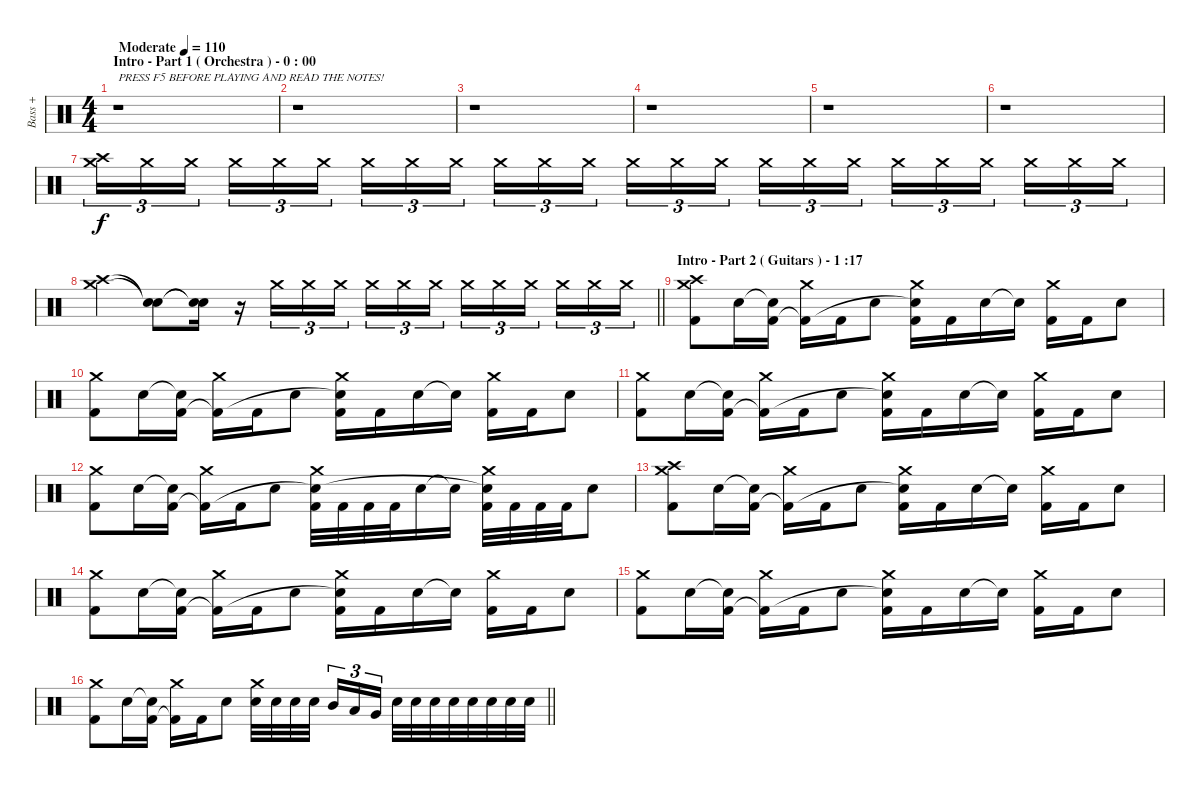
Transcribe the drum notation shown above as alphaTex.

\track ("  Bass +" "  Bass +") {instrument percussion}
\staff {score}
\articulation defaults
\ts (4 4)
\section ("" "Intro - Part 1 ( Orchestra ) - 0 : 00")
\tempo (110 "Moderate")
\clef neutral
\ks c
r.1{txt "PRESS F5 BEFORE PLAYING AND READ THE NOTES!" dy f volume 2} |
r.1 |
r.1 |
r.1 |
r.1 |
r.1 |
("Crash high (hit)" "Crash medium (hit)").16{tu (3 2) volume 16} "Crash medium (hit)".16{tu (3 2)} "Crash medium (hit)".16{tu (3 2) beam splitsecondary} "Crash medium (hit)".16{tu (3 2)} "Crash medium (hit)".16{tu (3 2)} "Crash medium (hit)".16{tu (3 2)} "Crash medium (hit)".16{tu (3 2)} "Crash medium (hit)".16{tu (3 2)} "Crash medium (hit)".16{tu (3 2) beam splitsecondary} "Crash medium (hit)".16{tu (3 2)} "Crash medium (hit)".16{tu (3 2)} "Crash medium (hit)".16{tu (3 2)} "Crash medium (hit)".16{tu (3 2)} "Crash medium (hit)".16{tu (3 2)} "Crash medium (hit)".16{tu (3 2) beam splitsecondary} "Crash medium (hit)".16{tu (3 2)} "Crash medium (hit)".16{tu (3 2)} "Crash medium (hit)".16{tu (3 2)} "Crash medium (hit)".16{tu (3 2)} "Crash medium (hit)".16{tu (3 2)} "Crash medium (hit)".16{tu (3 2) beam splitsecondary} "Crash medium (hit)".16{tu (3 2)} "Crash medium (hit)".16{tu (3 2)} "Crash medium (hit)".16{tu (3 2)} |
\barLineRight lightlight
("Crash high (hit)" "Crash medium (hit)").4 ("Snare (hit)"{t} "Snare (hit)"{t}).8 ("Snare (hit)"{t} "Snare (hit)"{t}).16 r.16{volume 3} "Crash medium (hit)".16{tu (3 2) volume 16} "Crash medium (hit)".16{tu (3 2)} "Crash medium (hit)".16{tu (3 2) beam splitsecondary} "Crash medium (hit)".16{tu (3 2)} "Crash medium (hit)".16{tu (3 2)} "Crash medium (hit)".16{tu (3 2)} "Crash medium (hit)".16{tu (3 2)} "Crash medium (hit)".16{tu (3 2)} "Crash medium (hit)".16{tu (3 2) beam splitsecondary} "Crash medium (hit)".16{tu (3 2)} "Crash medium (hit)".16{tu (3 2)} "Crash medium (hit)".16{tu (3 2)} |
\section ("" "Intro - Part 2 ( Guitars ) - 1 :17")
("Crash medium (hit)" "Crash high (hit)" "Kick (hit) 2").8 "Snare (hit) 2".16 ("Snare (hit)"{t} "Kick (hit) 2").16 ("Crash medium (hit)" "Kick (hit) 2"{t}).16 "Kick (hit) 2".16 "Snare (hit) 2".8 ("Crash medium (hit)" "Snare (hit) 2"{t} "Kick (hit) 2").16 "Kick (hit) 2".16 "Snare (hit) 2".16 "Snare (hit) 2"{t}.16 ("Crash medium (hit)" "Kick (hit) 2").16 "Kick (hit) 2".16 "Snare (hit) 2".8 |
("Crash medium (hit)" "Kick (hit) 2").8 "Snare (hit) 2".16 ("Snare (hit)"{t} "Kick (hit) 2").16 ("Crash medium (hit)" "Kick (hit) 2"{t}).16 "Kick (hit) 2".16 "Snare (hit) 2".8 ("Crash medium (hit)" "Snare (hit) 2"{t} "Kick (hit) 2").16 "Kick (hit) 2".16 "Snare (hit) 2".16 "Snare (hit) 2"{t}.16 ("Crash medium (hit)" "Kick (hit) 2").16 "Kick (hit) 2".16 "Snare (hit) 2".8 |
("Crash medium (hit)" "Kick (hit) 2").8 "Snare (hit) 2".16 ("Snare (hit)"{t} "Kick (hit) 2").16 ("Crash medium (hit)" "Kick (hit) 2"{t}).16 "Kick (hit) 2".16 "Snare (hit) 2".8 ("Crash medium (hit)" "Snare (hit) 2"{t} "Kick (hit) 2").16 "Kick (hit) 2".16 "Snare (hit) 2".16 "Snare (hit) 2"{t}.16 ("Crash medium (hit)" "Kick (hit) 2").16 "Kick (hit) 2".16 "Snare (hit) 2".8 |
("Crash medium (hit)" "Kick (hit) 2").8 "Snare (hit) 2".16 ("Snare (hit)"{t} "Kick (hit) 2").16 ("Crash medium (hit)" "Kick (hit) 2"{t}).16 "Kick (hit) 2".16 "Snare (hit) 2".8 ("Crash medium (hit)" "Snare (hit) 2"{t} "Kick (hit) 2").32 "Kick (hit) 2".32 "Kick (hit) 2".32 "Kick (hit) 2".32 "Snare (hit) 2".16 "Snare (hit) 2"{t}.16 ("Crash medium (hit)" "Snare (hit) 2"{t} "Kick (hit) 2").32 "Kick (hit) 2".32 "Kick (hit) 2".32 "Kick (hit) 2".32 "Snare (hit) 2".8 |
("Crash medium (hit)" "Crash high (hit)" "Kick (hit) 2").8 "Snare (hit) 2".16 ("Snare (hit)"{t} "Kick (hit) 2").16 ("Crash medium (hit)" "Kick (hit) 2"{t}).16 "Kick (hit) 2".16 "Snare (hit) 2".8 ("Crash medium (hit)" "Snare (hit) 2"{t} "Kick (hit) 2").16 "Kick (hit) 2".16 "Snare (hit) 2".16 "Snare (hit) 2"{t}.16 ("Crash medium (hit)" "Kick (hit) 2").16 "Kick (hit) 2".16 "Snare (hit) 2".8 |
("Crash medium (hit)" "Kick (hit) 2").8 "Snare (hit) 2".16 ("Snare (hit)"{t} "Kick (hit) 2").16 ("Crash medium (hit)" "Kick (hit) 2"{t}).16 "Kick (hit) 2".16 "Snare (hit) 2".8 ("Crash medium (hit)" "Snare (hit) 2"{t} "Kick (hit) 2").16 "Kick (hit) 2".16 "Snare (hit) 2".16 "Snare (hit) 2"{t}.16 ("Crash medium (hit)" "Kick (hit) 2").16 "Kick (hit) 2".16 "Snare (hit) 2".8 |
("Crash medium (hit)" "Kick (hit) 2").8 "Snare (hit) 2".16 ("Snare (hit)"{t} "Kick (hit) 2").16 ("Crash medium (hit)" "Kick (hit) 2"{t}).16 "Kick (hit) 2".16 "Snare (hit) 2".8 ("Crash medium (hit)" "Snare (hit) 2"{t} "Kick (hit) 2").16 "Kick (hit) 2".16 "Snare (hit) 2".16 "Snare (hit) 2"{t}.16 ("Crash medium (hit)" "Kick (hit) 2").16 "Kick (hit) 2".16 "Snare (hit) 2".8 |
\barLineRight lightlight
("Crash medium (hit)" "Kick (hit) 2").8 "Snare (hit) 2".16 ("Snare (hit)"{t} "Kick (hit) 2").16 ("Crash medium (hit)" "Kick (hit) 2"{t}).16 "Kick (hit) 2".16 "Snare (hit) 2".8 ("Crash medium (hit)" "Electric Snare (hit)").32 "Electric Snare (hit)".32 "Electric Snare (hit)".32 "Electric Snare (hit)".32{beam splitsecondary} "Mid Tom (hit)".16{tu (3 2)} "Low Tom (hit)".16{tu (3 2)} "Very Low Tom (hit)".16{tu (3 2)} "Electric Snare (hit)".32 "Electric Snare (hit)".32 "Electric Snare (hit)".32 "Electric Snare (hit)".32 "Electric Snare (hit)".32 "Electric Snare (hit)".32 "Electric Snare (hit)".32 "Electric Snare (hit)".32
